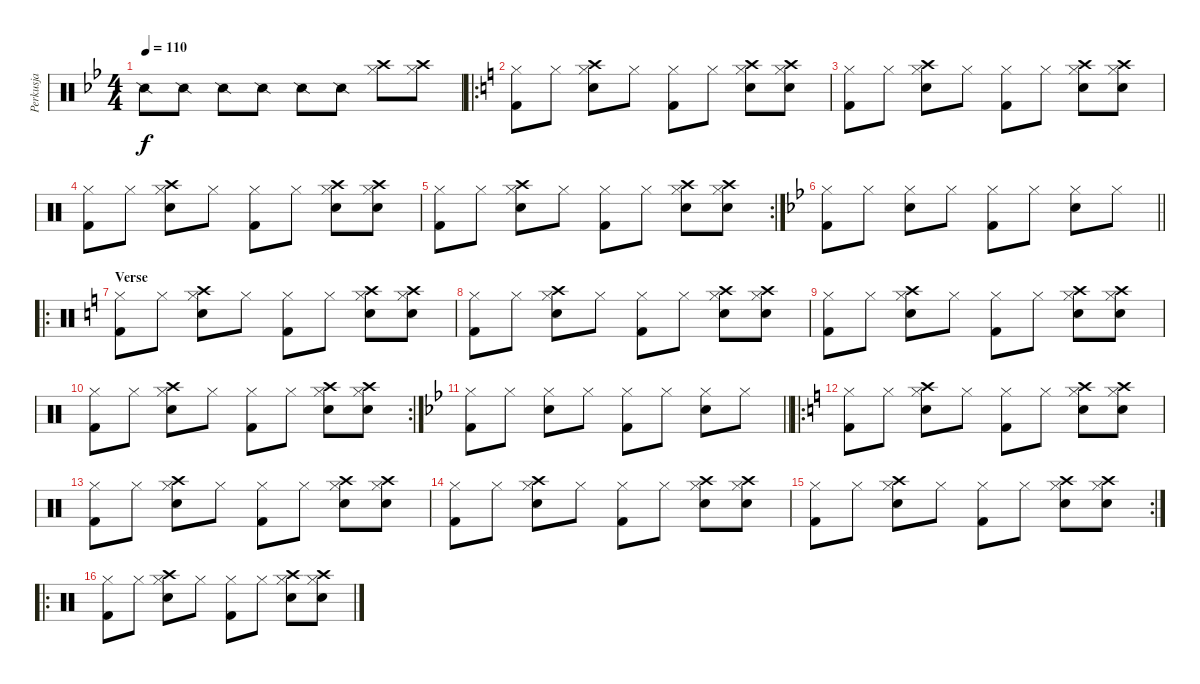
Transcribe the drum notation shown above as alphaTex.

\track ("Perkusja" "Perkusja") {instrument percussion}
\staff {score}
\articulation defaults
\ts (4 4)
\tempo 110
\clef neutral
\ks bb "Snare (side stick) 2".8{dy f} "Snare (side stick) 2".8 "Snare (side stick) 2".8 "Snare (side stick) 2".8 "Snare (side stick) 2".8 "Snare (side stick) 2".8
("Hi-Hat (closed)" "Crash high (hit)").8 ("Hi-Hat (closed)" "Crash high (hit)").8 |
\ro
\ks c
("Hi-Hat (closed)" "Kick (hit) 2").8 "Hi-Hat (closed)".8 ("Hi-Hat (closed)" "Electric Snare (hit)" "Crash high (hit)").8 "Hi-Hat (closed)".8 ("Hi-Hat (closed)" "Kick (hit) 2").8 "Hi-Hat (closed)".8 ("Hi-Hat (closed)" "Electric Snare (hit)" "Crash high (hit)").8 ("Hi-Hat (closed)" "Electric Snare (hit)" "Crash high (hit)").8 |
("Hi-Hat (closed)" "Kick (hit) 2").8 "Hi-Hat (closed)".8 ("Hi-Hat (closed)" "Electric Snare (hit)" "Crash high (hit)").8 "Hi-Hat (closed)".8 ("Hi-Hat (closed)" "Kick (hit) 2").8 "Hi-Hat (closed)".8 ("Hi-Hat (closed)" "Electric Snare (hit)" "Crash high (hit)").8 ("Hi-Hat (closed)" "Electric Snare (hit)" "Crash high (hit)").8 |
("Hi-Hat (closed)" "Kick (hit) 2").8 "Hi-Hat (closed)".8 ("Hi-Hat (closed)" "Electric Snare (hit)" "Crash high (hit)").8 "Hi-Hat (closed)".8 ("Hi-Hat (closed)" "Kick (hit) 2").8 "Hi-Hat (closed)".8 ("Hi-Hat (closed)" "Electric Snare (hit)" "Crash high (hit)").8 ("Hi-Hat (closed)" "Electric Snare (hit)" "Crash high (hit)").8 |
\rc 2
("Hi-Hat (closed)" "Kick (hit) 2").8 "Hi-Hat (closed)".8 ("Hi-Hat (closed)" "Electric Snare (hit)" "Crash high (hit)").8 "Hi-Hat (closed)".8 ("Hi-Hat (closed)" "Kick (hit) 2").8 "Hi-Hat (closed)".8 ("Hi-Hat (closed)" "Electric Snare (hit)" "Crash high (hit)").8 ("Hi-Hat (closed)" "Electric Snare (hit)" "Crash high (hit)").8 |
\barLineRight lightlight
\ks bb
("Hi-Hat (closed)" "Kick (hit) 2").8 "Hi-Hat (closed)".8 ("Hi-Hat (closed)" "Electric Snare (hit)").8 "Hi-Hat (closed)".8 ("Hi-Hat (closed)" "Kick (hit) 2").8 "Hi-Hat (closed)".8 ("Hi-Hat (closed)" "Electric Snare (hit)").8 "Hi-Hat (closed)".8 |
\ro
\section ("" "Verse")
\ks c
("Hi-Hat (closed)" "Kick (hit) 2").8 "Hi-Hat (closed)".8 ("Hi-Hat (closed)" "Electric Snare (hit)" "Crash high (hit)").8 "Hi-Hat (closed)".8 ("Hi-Hat (closed)" "Kick (hit) 2").8 "Hi-Hat (closed)".8 ("Hi-Hat (closed)" "Electric Snare (hit)" "Crash high (hit)").8 ("Hi-Hat (closed)" "Electric Snare (hit)" "Crash high (hit)").8 |
("Hi-Hat (closed)" "Kick (hit) 2").8 "Hi-Hat (closed)".8 ("Hi-Hat (closed)" "Electric Snare (hit)" "Crash high (hit)").8 "Hi-Hat (closed)".8 ("Hi-Hat (closed)" "Kick (hit) 2").8 "Hi-Hat (closed)".8 ("Hi-Hat (closed)" "Electric Snare (hit)" "Crash high (hit)").8 ("Hi-Hat (closed)" "Electric Snare (hit)" "Crash high (hit)").8 |
("Hi-Hat (closed)" "Kick (hit) 2").8 "Hi-Hat (closed)".8 ("Hi-Hat (closed)" "Electric Snare (hit)" "Crash high (hit)").8 "Hi-Hat (closed)".8 ("Hi-Hat (closed)" "Kick (hit) 2").8 "Hi-Hat (closed)".8 ("Hi-Hat (closed)" "Electric Snare (hit)" "Crash high (hit)").8 ("Hi-Hat (closed)" "Electric Snare (hit)" "Crash high (hit)").8 |
\rc 2
("Hi-Hat (closed)" "Kick (hit) 2").8 "Hi-Hat (closed)".8 ("Hi-Hat (closed)" "Electric Snare (hit)" "Crash high (hit)").8 "Hi-Hat (closed)".8 ("Hi-Hat (closed)" "Kick (hit) 2").8 "Hi-Hat (closed)".8 ("Hi-Hat (closed)" "Electric Snare (hit)" "Crash high (hit)").8 ("Hi-Hat (closed)" "Electric Snare (hit)" "Crash high (hit)").8 |
\barLineRight lightlight
\ks bb
("Hi-Hat (closed)" "Kick (hit) 2").8 "Hi-Hat (closed)".8 ("Hi-Hat (closed)" "Electric Snare (hit)").8 "Hi-Hat (closed)".8 ("Hi-Hat (closed)" "Kick (hit) 2").8 "Hi-Hat (closed)".8 ("Hi-Hat (closed)" "Electric Snare (hit)").8 "Hi-Hat (closed)".8 |
\ro
\ks c
("Hi-Hat (closed)" "Kick (hit) 2").8 "Hi-Hat (closed)".8 ("Hi-Hat (closed)" "Electric Snare (hit)" "Crash high (hit)").8 "Hi-Hat (closed)".8 ("Hi-Hat (closed)" "Kick (hit) 2").8 "Hi-Hat (closed)".8 ("Hi-Hat (closed)" "Electric Snare (hit)" "Crash high (hit)").8 ("Hi-Hat (closed)" "Electric Snare (hit)" "Crash high (hit)").8 |
("Hi-Hat (closed)" "Kick (hit) 2").8 "Hi-Hat (closed)".8 ("Hi-Hat (closed)" "Electric Snare (hit)" "Crash high (hit)").8 "Hi-Hat (closed)".8 ("Hi-Hat (closed)" "Kick (hit) 2").8 "Hi-Hat (closed)".8 ("Hi-Hat (closed)" "Electric Snare (hit)" "Crash high (hit)").8 ("Hi-Hat (closed)" "Electric Snare (hit)" "Crash high (hit)").8 |
("Hi-Hat (closed)" "Kick (hit) 2").8 "Hi-Hat (closed)".8 ("Hi-Hat (closed)" "Electric Snare (hit)" "Crash high (hit)").8 "Hi-Hat (closed)".8 ("Hi-Hat (closed)" "Kick (hit) 2").8 "Hi-Hat (closed)".8 ("Hi-Hat (closed)" "Electric Snare (hit)" "Crash high (hit)").8 ("Hi-Hat (closed)" "Electric Snare (hit)" "Crash high (hit)").8 |
\rc 2
("Hi-Hat (closed)" "Kick (hit) 2").8 "Hi-Hat (closed)".8 ("Hi-Hat (closed)" "Electric Snare (hit)" "Crash high (hit)").8 "Hi-Hat (closed)".8 ("Hi-Hat (closed)" "Kick (hit) 2").8 "Hi-Hat (closed)".8 ("Hi-Hat (closed)" "Electric Snare (hit)" "Crash high (hit)").8 ("Hi-Hat (closed)" "Electric Snare (hit)" "Crash high (hit)").8 |
\ro
("Hi-Hat (closed)" "Kick (hit) 2").8 "Hi-Hat (closed)".8 ("Hi-Hat (closed)" "Electric Snare (hit)" "Crash high (hit)").8 "Hi-Hat (closed)".8 ("Hi-Hat (closed)" "Kick (hit) 2").8 "Hi-Hat (closed)".8 ("Hi-Hat (closed)" "Electric Snare (hit)" "Crash high (hit)").8 ("Hi-Hat (closed)" "Electric Snare (hit)" "Crash high (hit)").8
